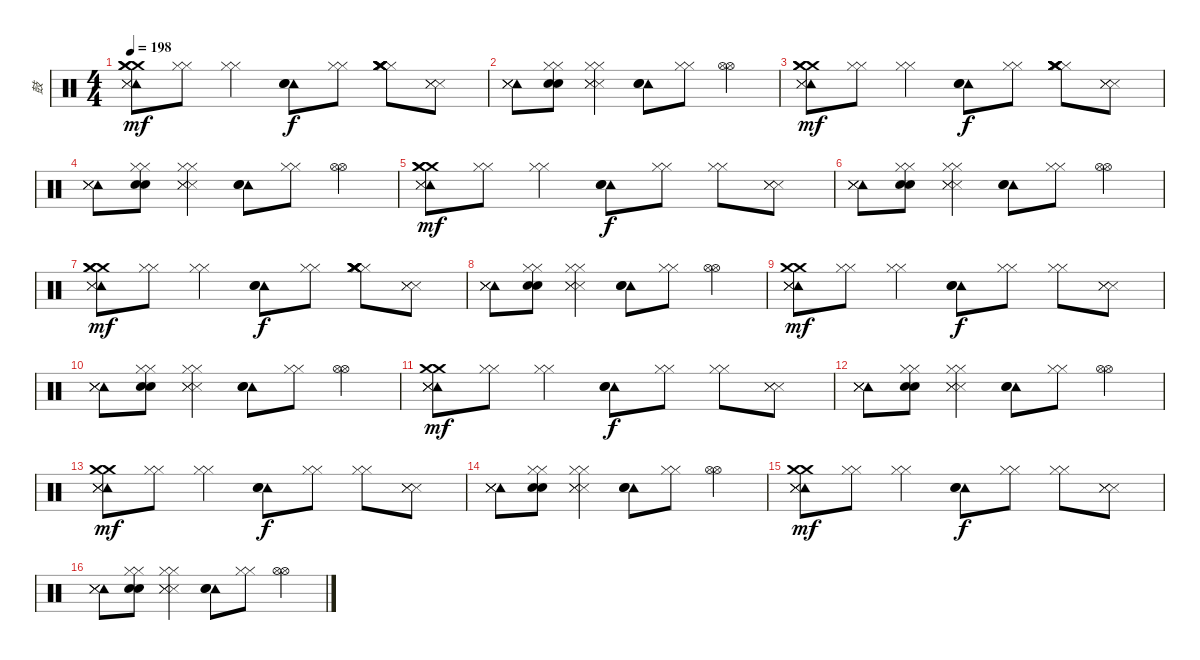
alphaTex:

\track ("鼓" "鼓") {instrument percussion}
\staff {score}
\articulation defaults
\ts (4 4)
\tempo 198
\clef neutral
\ks c
("Tambourine (hit)" "Crash medium (hit)" "Metronome (hit)" "Metronome (hit)" "Crash medium (hit)" "Crash medium (hit)").8{dy mf} ("Hi-Hat (closed)" "Hi-Hat (closed)").8 ("Hi-Hat (closed)" "Hi-Hat (closed)").4 ("Tambourine (hit)" "Metronome (bell)" "Metronome (bell)").8{dy f} ("Hi-Hat (closed)" "Hi-Hat (closed)").8 ("Hi-Hat (closed)" "Hi-Hat (closed)" "Crash medium (hit)" "Crash medium (hit)" "Crash medium (hit)" "Crash medium (hit)").8 ("Metronome (hit)" "Metronome (hit)" "Metronome (hit)").8 |
("Tambourine (hit)" "Metronome (hit)" "Metronome (hit)" "Metronome (hit)").8 ("Hi-Hat (closed)" "Hi-Hat (closed)" "Metronome (bell)" "Metronome (bell)").8 ("Hi-Hat (closed)" "Hi-Hat (closed)" "Metronome (hit)" "Metronome (hit)" "Metronome (hit)").4 ("Tambourine (hit)" "Metronome (bell)" "Metronome (bell)").8 ("Hi-Hat (closed)" "Hi-Hat (closed)").8 ("Hi-Hat (open)" "Hi-Hat (open)").4 |
("Tambourine (hit)" "Crash medium (hit)" "Metronome (hit)" "Metronome (hit)" "Crash medium (hit)" "Crash medium (hit)").8{dy mf} ("Hi-Hat (closed)" "Hi-Hat (closed)").8 ("Hi-Hat (closed)" "Hi-Hat (closed)").4 ("Tambourine (hit)" "Metronome (bell)" "Metronome (bell)").8{dy f} ("Hi-Hat (closed)" "Hi-Hat (closed)").8 ("Hi-Hat (closed)" "Hi-Hat (closed)" "Crash medium (hit)" "Crash medium (hit)" "Crash medium (hit)" "Crash medium (hit)").8 ("Metronome (hit)" "Metronome (hit)" "Metronome (hit)").8 |
("Tambourine (hit)" "Metronome (hit)" "Metronome (hit)" "Metronome (hit)").8 ("Hi-Hat (closed)" "Hi-Hat (closed)" "Metronome (bell)" "Metronome (bell)").8 ("Hi-Hat (closed)" "Hi-Hat (closed)" "Metronome (hit)" "Metronome (hit)" "Metronome (hit)").4 ("Tambourine (hit)" "Metronome (bell)" "Metronome (bell)").8 ("Hi-Hat (closed)" "Hi-Hat (closed)").8 ("Hi-Hat (open)" "Hi-Hat (open)").4 |
("Tambourine (hit)" "Crash medium (hit)" "Metronome (hit)" "Metronome (hit)" "Crash medium (hit)" "Crash medium (hit)").8{dy mf} ("Hi-Hat (closed)" "Hi-Hat (closed)").8 ("Hi-Hat (closed)" "Hi-Hat (closed)").4 ("Tambourine (hit)" "Metronome (bell)" "Metronome (bell)").8{dy f} ("Hi-Hat (closed)" "Hi-Hat (closed)").8 ("Hi-Hat (closed)" "Hi-Hat (closed)").8 ("Metronome (hit)" "Metronome (hit)" "Metronome (hit)").8 |
("Tambourine (hit)" "Metronome (hit)" "Metronome (hit)" "Metronome (hit)").8 ("Hi-Hat (closed)" "Hi-Hat (closed)" "Metronome (bell)" "Metronome (bell)").8 ("Hi-Hat (closed)" "Hi-Hat (closed)" "Metronome (hit)" "Metronome (hit)" "Metronome (hit)").4 ("Tambourine (hit)" "Metronome (bell)" "Metronome (bell)").8 ("Hi-Hat (closed)" "Hi-Hat (closed)").8 ("Hi-Hat (open)" "Hi-Hat (open)").4 |
("Tambourine (hit)" "Crash medium (hit)" "Metronome (hit)" "Metronome (hit)" "Crash medium (hit)" "Crash medium (hit)").8{dy mf} ("Hi-Hat (closed)" "Hi-Hat (closed)").8 ("Hi-Hat (closed)" "Hi-Hat (closed)").4 ("Tambourine (hit)" "Metronome (bell)" "Metronome (bell)").8{dy f} ("Hi-Hat (closed)" "Hi-Hat (closed)").8 ("Hi-Hat (closed)" "Hi-Hat (closed)" "Crash medium (hit)" "Crash medium (hit)" "Crash medium (hit)" "Crash medium (hit)").8 ("Metronome (hit)" "Metronome (hit)" "Metronome (hit)").8 |
("Tambourine (hit)" "Metronome (hit)" "Metronome (hit)" "Metronome (hit)").8 ("Hi-Hat (closed)" "Hi-Hat (closed)" "Metronome (bell)" "Metronome (bell)").8 ("Hi-Hat (closed)" "Hi-Hat (closed)" "Metronome (hit)" "Metronome (hit)" "Metronome (hit)").4 ("Tambourine (hit)" "Metronome (bell)" "Metronome (bell)").8 ("Hi-Hat (closed)" "Hi-Hat (closed)").8 ("Hi-Hat (open)" "Hi-Hat (open)").4 |
("Tambourine (hit)" "Crash medium (hit)" "Metronome (hit)" "Metronome (hit)" "Metronome (hit)" "Crash medium (hit)").8{dy mf} ("Hi-Hat (closed)" "Hi-Hat (closed)").8 ("Hi-Hat (closed)" "Hi-Hat (closed)").4 ("Tambourine (hit)" "Metronome (bell)" "Metronome (bell)").8{dy f} ("Hi-Hat (closed)" "Hi-Hat (closed)").8 ("Hi-Hat (closed)" "Hi-Hat (closed)").8 ("Metronome (hit)" "Metronome (hit)" "Metronome (hit)").8 |
("Tambourine (hit)" "Metronome (hit)" "Metronome (hit)" "Metronome (hit)").8 ("Hi-Hat (closed)" "Hi-Hat (closed)" "Metronome (bell)" "Metronome (bell)").8 ("Hi-Hat (closed)" "Hi-Hat (closed)" "Metronome (hit)" "Metronome (hit)" "Metronome (hit)").4 ("Tambourine (hit)" "Metronome (bell)" "Metronome (bell)").8 ("Hi-Hat (closed)" "Hi-Hat (closed)").8 ("Hi-Hat (open)" "Hi-Hat (open)").4 |
("Tambourine (hit)" "Crash medium (hit)" "Metronome (hit)" "Metronome (hit)" "Metronome (hit)" "Crash medium (hit)").8{dy mf} ("Hi-Hat (closed)" "Hi-Hat (closed)").8 ("Hi-Hat (closed)" "Hi-Hat (closed)").4 ("Tambourine (hit)" "Metronome (bell)" "Metronome (bell)").8{dy f} ("Hi-Hat (closed)" "Hi-Hat (closed)").8 ("Hi-Hat (closed)" "Hi-Hat (closed)").8 ("Metronome (hit)" "Metronome (hit)" "Metronome (hit)").8 |
("Tambourine (hit)" "Metronome (hit)" "Metronome (hit)" "Metronome (hit)").8 ("Hi-Hat (closed)" "Hi-Hat (closed)" "Metronome (bell)" "Metronome (bell)").8 ("Hi-Hat (closed)" "Hi-Hat (closed)" "Metronome (hit)" "Metronome (hit)" "Metronome (hit)").4 ("Tambourine (hit)" "Metronome (bell)" "Metronome (bell)").8 ("Hi-Hat (closed)" "Hi-Hat (closed)").8 ("Hi-Hat (open)" "Hi-Hat (open)").4 |
("Tambourine (hit)" "Crash medium (hit)" "Metronome (hit)" "Metronome (hit)" "Metronome (hit)" "Crash medium (hit)").8{dy mf} ("Hi-Hat (closed)" "Hi-Hat (closed)").8 ("Hi-Hat (closed)" "Hi-Hat (closed)").4 ("Tambourine (hit)" "Metronome (bell)" "Metronome (bell)").8{dy f} ("Hi-Hat (closed)" "Hi-Hat (closed)").8 ("Hi-Hat (closed)" "Hi-Hat (closed)").8 ("Metronome (hit)" "Metronome (hit)" "Metronome (hit)").8 |
("Tambourine (hit)" "Metronome (hit)" "Metronome (hit)" "Metronome (hit)").8 ("Hi-Hat (closed)" "Hi-Hat (closed)" "Metronome (bell)" "Metronome (bell)").8 ("Hi-Hat (closed)" "Hi-Hat (closed)" "Metronome (hit)" "Metronome (hit)" "Metronome (hit)").4 ("Tambourine (hit)" "Metronome (bell)" "Metronome (bell)").8 ("Hi-Hat (closed)" "Hi-Hat (closed)").8 ("Hi-Hat (open)" "Hi-Hat (open)").4 |
("Tambourine (hit)" "Crash medium (hit)" "Metronome (hit)" "Metronome (hit)" "Metronome (hit)" "Crash medium (hit)").8{dy mf} ("Hi-Hat (closed)" "Hi-Hat (closed)").8 ("Hi-Hat (closed)" "Hi-Hat (closed)").4 ("Tambourine (hit)" "Metronome (bell)" "Metronome (bell)").8{dy f} ("Hi-Hat (closed)" "Hi-Hat (closed)").8 ("Hi-Hat (closed)" "Hi-Hat (closed)").8 ("Metronome (hit)" "Metronome (hit)" "Metronome (hit)").8 |
("Tambourine (hit)" "Metronome (hit)" "Metronome (hit)" "Metronome (hit)").8 ("Hi-Hat (closed)" "Hi-Hat (closed)" "Metronome (bell)" "Metronome (bell)").8 ("Hi-Hat (closed)" "Hi-Hat (closed)" "Metronome (hit)" "Metronome (hit)" "Metronome (hit)").4 ("Tambourine (hit)" "Metronome (bell)" "Metronome (bell)").8 ("Hi-Hat (closed)" "Hi-Hat (closed)").8 ("Hi-Hat (open)" "Hi-Hat (open)").4
